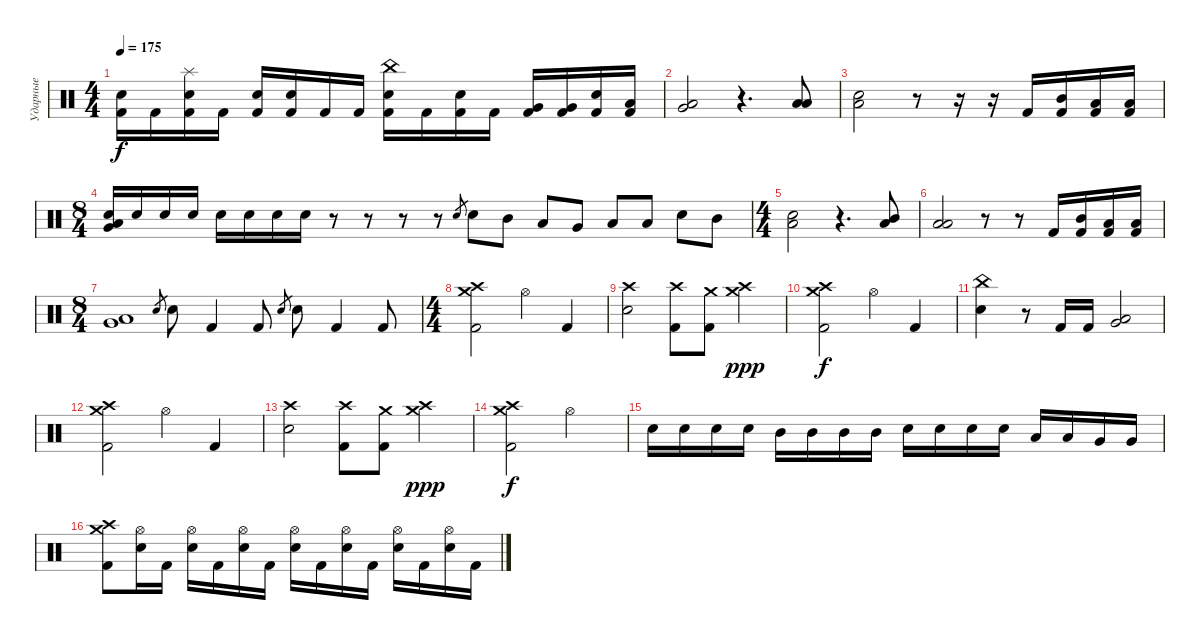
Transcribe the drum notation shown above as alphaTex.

\track ("Ударные" "Ударные") {instrument percussion}
\staff {score}
\articulation defaults
\ts (4 4)
\tempo 175
\clef neutral
\ks c
("Electric Snare (hit)" "Kick (hit) 2").16{dy f} "Kick (hit) 2".16 ("Electric Snare (hit)" "Splash (hit)" "Kick (hit) 2").16 "Kick (hit) 2".16 ("Electric Snare (hit)" "Kick (hit) 2").16 ("Electric Snare (hit)" "Kick (hit) 2").16 "Kick (hit) 2".16 "Kick (hit) 2".16 ("Electric Snare (hit)" "China (hit)" "Kick (hit) 2").16 "Kick (hit) 2".16 ("Electric Snare (hit)" "Kick (hit) 2").16 "Kick (hit) 2".16 ("Very Low Tom (hit)" "Kick (hit) 2").16 ("Very Low Tom (hit)" "Kick (hit) 2").16 ("Electric Snare (hit)" "Kick (hit) 2").16 ("Low Floor Tom (hit)" "Kick (hit) 2").16 |
("Very Low Tom (hit)" "Low Floor Tom (hit)").2 r.4{d} ("Low Floor Tom (hit)" "Low Tom (hit)").8 |
("Low Floor Tom (hit)" "Snare (hit)").2 r.8 r.16 r.16 "Kick (hit) 2".16 ("Mid Tom (hit)" "Kick (hit) 2").16 ("Low Tom (hit)" "Kick (hit) 2").16 ("Low Tom (hit)" "Kick (hit) 2").16 |
\ts (8 4)
("Low Floor Tom (hit)" "Very Low Tom (hit)" "Snare (hit)").16 "Snare (hit)".16 "Snare (hit)".16 "Snare (hit)".16 "Snare (hit)".16 "Snare (hit)".16 "Snare (hit)".16 "Snare (hit)".16 r.8 r.8 r.8 r.8 "Electric Snare (hit)".8{gr} "Electric Snare (hit)".8 "Mid Tom (hit)".8 "Low Tom (hit)".8 "Very Low Tom (hit)".8 "Low Floor Tom (hit)".8 "Low Tom (hit)".8 "Electric Snare (hit)".8 "Mid Tom (hit)".8 |
\ts (4 4)
("Snare (hit)" "Low Floor Tom (hit)").2 r.4{d} ("Low Floor Tom (hit)" "Mid Tom (hit)").8 |
("Low Floor Tom (hit)" "Low Tom (hit)").2 r.8 r.8 "Kick (hit) 2".16 ("Mid Tom (hit)" "Kick (hit) 2").16 ("Low Tom (hit)" "Kick (hit) 2").16 ("Low Tom (hit)" "Kick (hit) 2").16 |
\ts (8 4)
("Low Floor Tom (hit)" "Very Low Tom (hit)").1 "Electric Snare (hit)".8{gr} "Electric Snare (hit)".8 "Kick (hit) 2".4 "Kick (hit) 2".8 "Electric Snare (hit)".8{gr} "Electric Snare (hit)".8 "Kick (hit) 2".4 "Kick (hit) 2".8 |
\ts (4 4)
("Crash medium (hit)" "Crash high (hit)" "Kick (hit) 2").2 "Hi-Hat (open)".4 "Kick (hit) 2".4 |
("Crash high (hit)" "Electric Snare (hit)").2 ("Crash high (hit)" "Kick (hit) 2").8 ("Crash medium (hit)" "Kick (hit) 2").8 ("Crash medium (hit)" "Crash high (hit)").4{dy ppp} |
("Crash medium (hit)" "Crash high (hit)" "Kick (hit) 2").2{dy f} "Hi-Hat (open)".4 "Kick (hit) 2".4 |
("China (hit)" "Electric Snare (hit)").4 r.8 "Kick (hit) 2".16 "Kick (hit) 2".16 ("Low Floor Tom (hit)" "Very Low Tom (hit)").2 |
("Crash medium (hit)" "Crash high (hit)" "Kick (hit) 2").2 "Hi-Hat (open)".4 "Kick (hit) 2".4 |
("Crash high (hit)" "Electric Snare (hit)").2 ("Crash high (hit)" "Kick (hit) 2").8 ("Crash medium (hit)" "Kick (hit) 2").8 ("Crash medium (hit)" "Crash high (hit)").4{dy ppp} |
("Crash medium (hit)" "Crash high (hit)" "Kick (hit) 2").2{dy f} "Hi-Hat (open)".2 |
"Electric Snare (hit)".16 "Electric Snare (hit)".16 "Electric Snare (hit)".16 "Electric Snare (hit)".16 "Mid Tom (hit)".16 "Mid Tom (hit)".16 "Mid Tom (hit)".16 "Mid Tom (hit)".16 "Electric Snare (hit)".16 "Electric Snare (hit)".16 "Electric Snare (hit)".16 "Electric Snare (hit)".16 "Low Tom (hit)".16 "Low Tom (hit)".16 "Very Low Tom (hit)".16 "Very Low Tom (hit)".16 |
("Crash medium (hit)" "Crash high (hit)" "Kick (hit) 2").8 ("Electric Snare (hit)" "Hi-Hat (open)").16 "Kick (hit) 2".16 ("Electric Snare (hit)" "Hi-Hat (open)").16 "Kick (hit) 2".16 ("Electric Snare (hit)" "Hi-Hat (open)").16 "Kick (hit) 2".16 ("Electric Snare (hit)" "Hi-Hat (open)").16 "Kick (hit) 2".16 ("Electric Snare (hit)" "Hi-Hat (open)").16 "Kick (hit) 2".16 ("Electric Snare (hit)" "Hi-Hat (open)").16 "Kick (hit) 2".16 ("Electric Snare (hit)" "Hi-Hat (open)").16 "Kick (hit) 2".16
